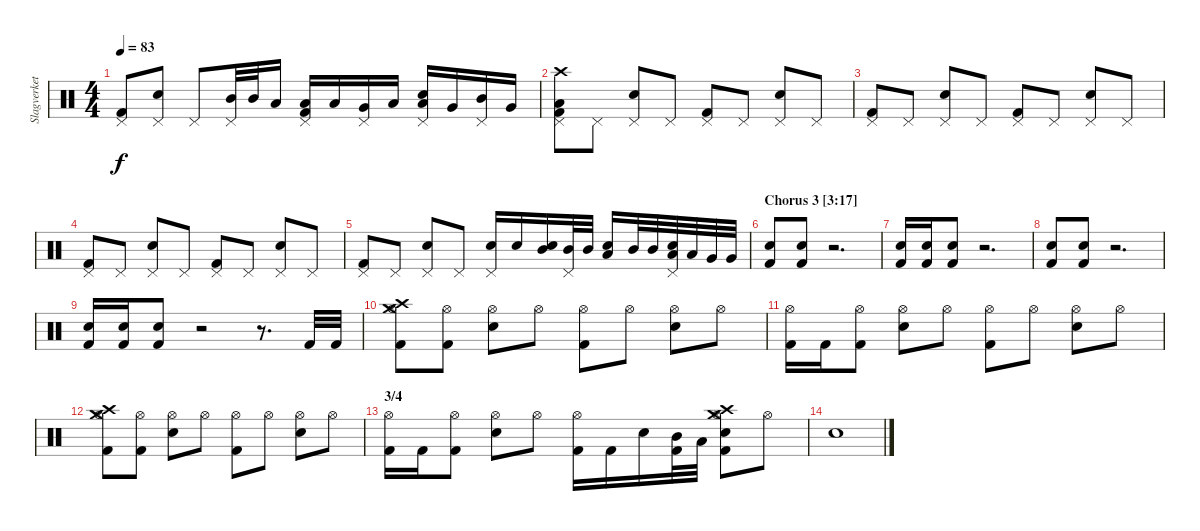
\track ("Slagverket!" "Slagverket") {instrument percussion}
\staff {score}
\articulation defaults
\ts (4 4)
\tempo 83
\clef neutral
\ks c
("Pedal Hi-Hat (hit)" "Kick (hit) 2").8{dy f} ("Pedal Hi-Hat (hit)" "Snare (hit) 2").8 "Pedal Hi-Hat (hit)".8 ("Pedal Hi-Hat (hit)" "Mid Tom (hit)").32 "Mid Tom (hit)".32 "Low Tom (hit)".16 ("Pedal Hi-Hat (hit)" "Low Tom (hit)" "Kick (hit) 2").16 "Low Tom (hit)".16 ("Pedal Hi-Hat (hit)" "Very Low Tom (hit)").16 "Low Tom (hit)".16 ("Pedal Hi-Hat (hit)" "Low Floor Tom (hit)" "Snare (hit) 2").16 "Very Low Tom (hit)".16 ("Pedal Hi-Hat (hit)" "Mid Tom (hit)").16 "Very Low Tom (hit)".16 |
("Crash high (hit)" "Pedal Hi-Hat (hit)" "Low Floor Tom (hit)" "Kick (hit) 2").8 "Pedal Hi-Hat (hit)".8 ("Pedal Hi-Hat (hit)" "Snare (hit) 2").8 "Pedal Hi-Hat (hit)".8 ("Pedal Hi-Hat (hit)" "Kick (hit) 2").8 "Pedal Hi-Hat (hit)".8 ("Pedal Hi-Hat (hit)" "Snare (hit) 2").8 "Pedal Hi-Hat (hit)".8 |
("Pedal Hi-Hat (hit)" "Kick (hit) 2").8 "Pedal Hi-Hat (hit)".8 ("Pedal Hi-Hat (hit)" "Snare (hit) 2").8 "Pedal Hi-Hat (hit)".8 ("Pedal Hi-Hat (hit)" "Kick (hit) 2").8 "Pedal Hi-Hat (hit)".8 ("Pedal Hi-Hat (hit)" "Snare (hit) 2").8 "Pedal Hi-Hat (hit)".8 |
("Pedal Hi-Hat (hit)" "Kick (hit) 2").8 "Pedal Hi-Hat (hit)".8 ("Pedal Hi-Hat (hit)" "Snare (hit) 2").8 "Pedal Hi-Hat (hit)".8 ("Pedal Hi-Hat (hit)" "Kick (hit) 2").8 "Pedal Hi-Hat (hit)".8 ("Pedal Hi-Hat (hit)" "Snare (hit) 2").8 "Pedal Hi-Hat (hit)".8 |
("Pedal Hi-Hat (hit)" "Kick (hit) 2").8 "Pedal Hi-Hat (hit)".8 ("Pedal Hi-Hat (hit)" "Snare (hit) 2").8 "Pedal Hi-Hat (hit)".8 ("Pedal Hi-Hat (hit)" "Snare (hit) 2").16 "Electric Snare (hit)".16 ("Snare (hit) 2" "Mid Tom (hit)").16 ("Pedal Hi-Hat (hit)" "Mid Tom (hit)").32 "Mid Tom (hit)".32 ("Electric Snare (hit)" "Low Tom (hit)").16 "Mid Tom (hit)".32 "Mid Tom (hit)".32 ("Pedal Hi-Hat (hit)" "Snare (hit) 2" "Low Tom (hit)").32 "Low Tom (hit)".32 "Very Low Tom (hit)".32 "Very Low Tom (hit)".32 |
\section ("" "Chorus 3 [3:17]")
("Snare (hit) 2" "Kick (hit) 2").8 ("Snare (hit) 2" "Kick (hit) 2").8 r.2{d} |
("Snare (hit) 2" "Kick (hit) 2").16 ("Snare (hit) 2" "Kick (hit) 2").16 ("Snare (hit) 2" "Kick (hit) 2").8 r.2{d} |
("Snare (hit) 2" "Kick (hit) 2").8 ("Snare (hit) 2" "Kick (hit) 2").8 r.2{d} |
("Snare (hit) 2" "Kick (hit) 2").16 ("Snare (hit) 2" "Kick (hit) 2").16 ("Snare (hit) 2" "Kick (hit) 2").8 r.2 r.8{d} "Kick (hit) 2".32 "Kick (hit) 2".32 |
("Crash medium (hit)" "Hi-Hat (open)" "Crash high (hit)" "Kick (hit) 2").8 ("Hi-Hat (open)" "Kick (hit) 2").8 ("Hi-Hat (open)" "Snare (hit) 2").8 "Hi-Hat (open)".8 ("Hi-Hat (open)" "Kick (hit) 2").8 "Hi-Hat (open)".8 ("Hi-Hat (open)" "Snare (hit) 2").8 "Hi-Hat (open)".8 |
("Hi-Hat (open)" "Kick (hit) 2").16 "Kick (hit) 2".16 ("Hi-Hat (open)" "Kick (hit) 2").8 ("Hi-Hat (open)" "Snare (hit) 2").8 "Hi-Hat (open)".8 ("Hi-Hat (open)" "Kick (hit) 2").8 "Hi-Hat (open)".8 ("Hi-Hat (open)" "Snare (hit) 2").8 "Hi-Hat (open)".8 |
("Crash medium (hit)" "Hi-Hat (open)" "Crash high (hit)" "Kick (hit) 2").8 ("Hi-Hat (open)" "Kick (hit) 2").8 ("Hi-Hat (open)" "Snare (hit) 2").8 "Hi-Hat (open)".8 ("Hi-Hat (open)" "Kick (hit) 2").8 "Hi-Hat (open)".8 ("Hi-Hat (open)" "Snare (hit) 2").8 "Hi-Hat (open)".8 |
\section ("" "3/4")
("Hi-Hat (open)" "Kick (hit) 2").16 "Kick (hit) 2".16 ("Hi-Hat (open)" "Kick (hit) 2").8 ("Hi-Hat (open)" "Snare (hit) 2").8 "Hi-Hat (open)".8 ("Hi-Hat (open)" "Kick (hit) 2").16 "Kick (hit) 2".16 "Snare (hit) 2".16 ("Mid Tom (hit)" "Kick (hit) 2").32 "Low Tom (hit)".32 ("Crash medium (hit)" "Hi-Hat (open)" "Crash high (hit)" "Snare (hit) 2" "Kick (hit) 2").8 "Hi-Hat (open)".8 |
"Snare (hit) 2".1
